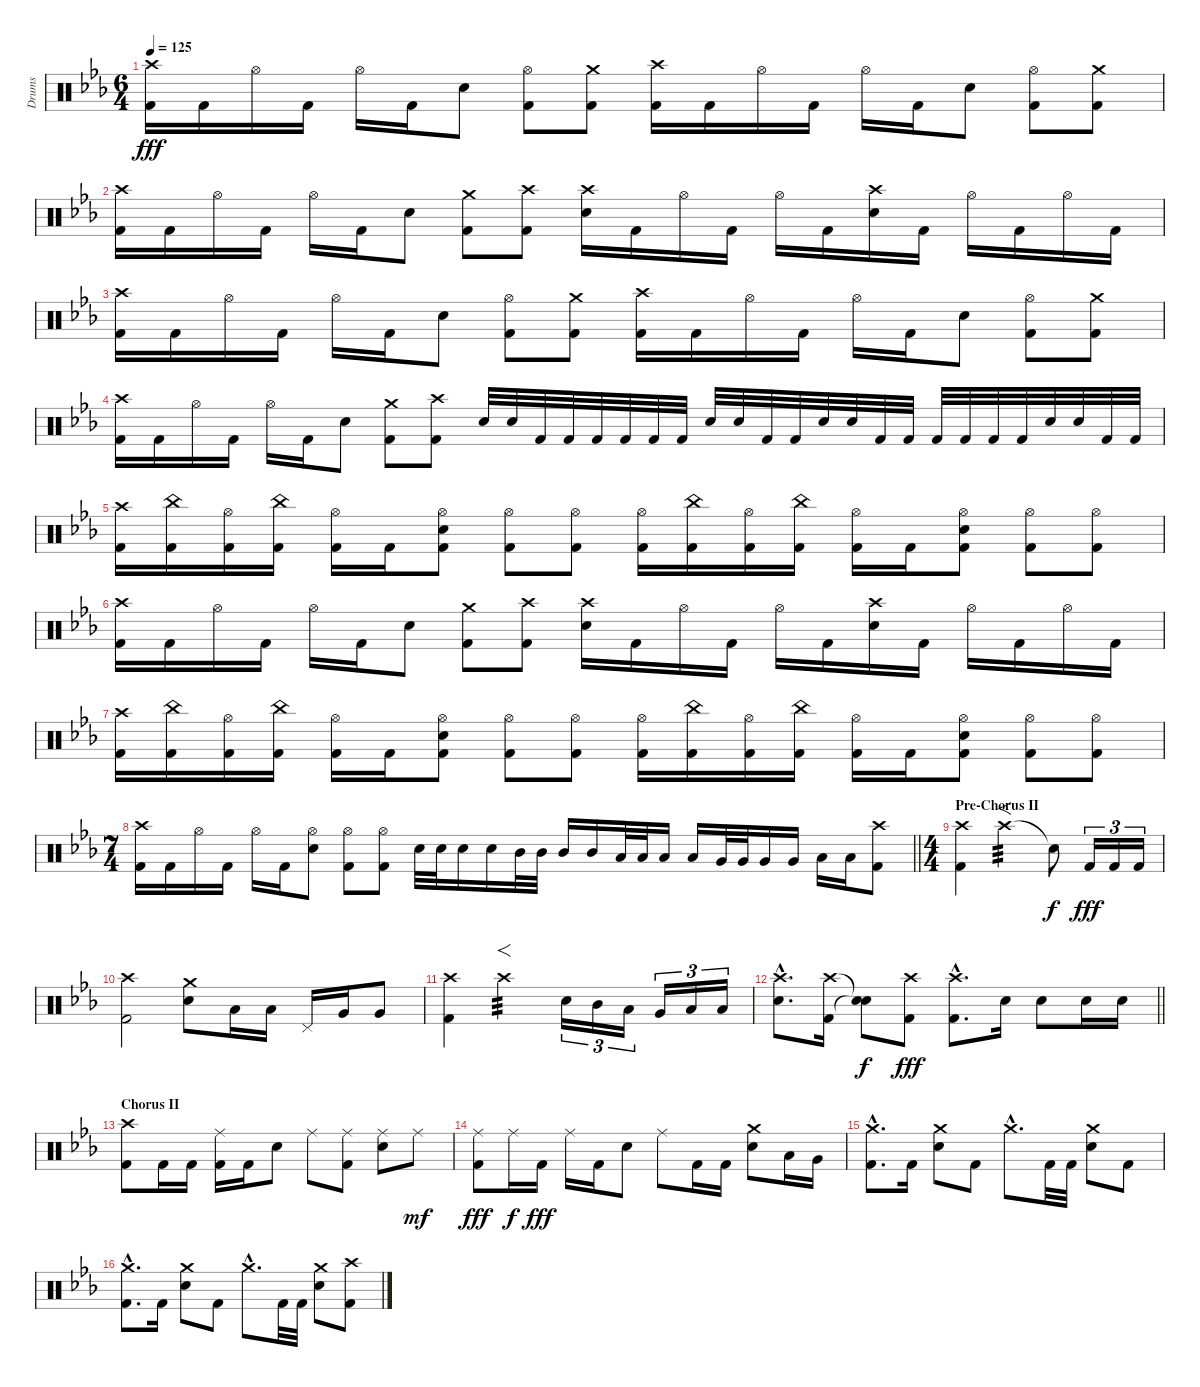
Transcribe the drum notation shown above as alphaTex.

\track ("Drums" "Drums") {instrument percussion}
\staff {score}
\articulation defaults
\ts (6 4)
\tempo 125
\clef neutral
\ks cminor
("Crash high (hit)" "Kick (hit) 2").16{dy fff} "Kick (hit) 2".16 "Hi-Hat (open)".16 "Kick (hit) 2".16 "Hi-Hat (open)".16 "Kick (hit) 2".16 "Snare (hit) 2".8 ("Hi-Hat (open)" "Kick (hit) 2").8 ("Crash medium (hit)" "Kick (hit) 2").8 ("Crash high (hit)" "Kick (hit) 2").16 "Kick (hit) 2".16 "Hi-Hat (open)".16 "Kick (hit) 2".16 "Hi-Hat (open)".16 "Kick (hit) 2".16 "Snare (hit) 2".8 ("Hi-Hat (open)" "Kick (hit) 2").8 ("Crash medium (hit)" "Kick (hit) 2").8 |
("Crash high (hit)" "Kick (hit) 2").16 "Kick (hit) 2".16 "Hi-Hat (open)".16 "Kick (hit) 2".16 "Hi-Hat (open)".16 "Kick (hit) 2".16 "Snare (hit) 2".8 ("Crash medium (hit)" "Kick (hit) 2").8 ("Crash high (hit)" "Kick (hit) 2").8 ("Crash high (hit)" "Snare (hit) 2").16 "Kick (hit) 2".16 "Hi-Hat (open)".16 "Kick (hit) 2".16 "Hi-Hat (open)".16 "Kick (hit) 2".16 ("Crash high (hit)" "Snare (hit) 2").16 "Kick (hit) 2".16 "Hi-Hat (open)".16 "Kick (hit) 2".16 "Hi-Hat (open)".16 "Kick (hit) 2".16 |
("Crash high (hit)" "Kick (hit) 2").16 "Kick (hit) 2".16 "Hi-Hat (open)".16 "Kick (hit) 2".16 "Hi-Hat (open)".16 "Kick (hit) 2".16 "Snare (hit) 2".8 ("Hi-Hat (open)" "Kick (hit) 2").8 ("Crash medium (hit)" "Kick (hit) 2").8 ("Crash high (hit)" "Kick (hit) 2").16 "Kick (hit) 2".16 "Hi-Hat (open)".16 "Kick (hit) 2".16 "Hi-Hat (open)".16 "Kick (hit) 2".16 "Snare (hit) 2".8 ("Hi-Hat (open)" "Kick (hit) 2").8 ("Crash medium (hit)" "Kick (hit) 2").8 |
("Crash high (hit)" "Kick (hit) 2").16 "Kick (hit) 2".16 "Hi-Hat (open)".16 "Kick (hit) 2".16 "Hi-Hat (open)".16 "Kick (hit) 2".16 "Snare (hit) 2".8 ("Crash medium (hit)" "Kick (hit) 2").8 ("Crash high (hit)" "Kick (hit) 2").8 "Snare (hit) 2".32 "Snare (hit) 2".32 "Kick (hit) 2".32 "Kick (hit) 2".32 "Kick (hit) 2".32 "Kick (hit) 2".32 "Kick (hit) 2".32 "Kick (hit) 2".32 "Snare (hit) 2".32 "Snare (hit) 2".32 "Kick (hit) 2".32 "Kick (hit) 2".32 "Snare (hit) 2".32 "Snare (hit) 2".32 "Kick (hit) 2".32 "Kick (hit) 2".32 "Kick (hit) 2".32 "Kick (hit) 2".32 "Kick (hit) 2".32 "Kick (hit) 2".32 "Snare (hit) 2".32 "Snare (hit) 2".32 "Kick (hit) 2".32 "Kick (hit) 2".32 |
("Crash high (hit)" "Kick (hit) 2").16 ("China (hit)" "Kick (hit) 2").16 ("Hi-Hat (open)" "Kick (hit) 2").16 ("China (hit)" "Kick (hit) 2").16 ("Hi-Hat (open)" "Kick (hit) 2").16 "Kick (hit) 2".16 ("Hi-Hat (open)" "Snare (hit) 2" "Kick (hit) 2").8 ("Hi-Hat (open)" "Kick (hit) 2").8 ("Hi-Hat (open)" "Kick (hit) 2").8 ("Hi-Hat (open)" "Kick (hit) 2").16 ("China (hit)" "Kick (hit) 2").16 ("Hi-Hat (open)" "Kick (hit) 2").16 ("China (hit)" "Kick (hit) 2").16 ("Hi-Hat (open)" "Kick (hit) 2").16 "Kick (hit) 2".16 ("Hi-Hat (open)" "Snare (hit) 2" "Kick (hit) 2").8 ("Hi-Hat (open)" "Kick (hit) 2").8 ("Hi-Hat (open)" "Kick (hit) 2").8 |
("Crash high (hit)" "Kick (hit) 2").16 "Kick (hit) 2".16 "Hi-Hat (open)".16 "Kick (hit) 2".16 "Hi-Hat (open)".16 "Kick (hit) 2".16 "Snare (hit) 2".8 ("Crash medium (hit)" "Kick (hit) 2").8 ("Crash high (hit)" "Kick (hit) 2").8 ("Crash high (hit)" "Snare (hit) 2").16 "Kick (hit) 2".16 "Hi-Hat (open)".16 "Kick (hit) 2".16 "Hi-Hat (open)".16 "Kick (hit) 2".16 ("Crash high (hit)" "Snare (hit) 2").16 "Kick (hit) 2".16 "Hi-Hat (open)".16 "Kick (hit) 2".16 "Hi-Hat (open)".16 "Kick (hit) 2".16 |
("Crash high (hit)" "Kick (hit) 2").16 ("China (hit)" "Kick (hit) 2").16 ("Hi-Hat (open)" "Kick (hit) 2").16 ("China (hit)" "Kick (hit) 2").16 ("Hi-Hat (open)" "Kick (hit) 2").16 "Kick (hit) 2".16 ("Hi-Hat (open)" "Snare (hit) 2" "Kick (hit) 2").8 ("Hi-Hat (open)" "Kick (hit) 2").8 ("Hi-Hat (open)" "Kick (hit) 2").8 ("Hi-Hat (open)" "Kick (hit) 2").16 ("China (hit)" "Kick (hit) 2").16 ("Hi-Hat (open)" "Kick (hit) 2").16 ("China (hit)" "Kick (hit) 2").16 ("Hi-Hat (open)" "Kick (hit) 2").16 "Kick (hit) 2".16 ("Hi-Hat (open)" "Snare (hit) 2" "Kick (hit) 2").8 ("Hi-Hat (open)" "Kick (hit) 2").8 ("Hi-Hat (open)" "Kick (hit) 2").8 |
\ts (7 4)
\barLineRight lightlight
("Crash high (hit)" "Kick (hit) 2").16 "Kick (hit) 2".16 "Hi-Hat (open)".16 "Kick (hit) 2".16 "Hi-Hat (open)".16 "Kick (hit) 2".16 ("Hi-Hat (open)" "Snare (hit) 2").8 ("Hi-Hat (open)" "Kick (hit) 2").8 ("Hi-Hat (open)" "Kick (hit) 2").8 "Snare (hit) 2".32 "Snare (hit) 2".32 "Snare (hit) 2".16 "Snare (hit) 2".16 "Mid Tom (hit)".32 "Mid Tom (hit)".32 "Mid Tom (hit)".16 "Mid Tom (hit)".16 "Low Tom (hit)".32 "Low Tom (hit)".32 "Low Tom (hit)".16 "Low Tom (hit)".16 "Very Low Tom (hit)".32 "Very Low Tom (hit)".32 "Very Low Tom (hit)".16 "Very Low Tom (hit)".16 "Low Floor Tom (hit)".16 "Low Floor Tom (hit)".16 ("Crash high (hit)" "Kick (hit) 2").8 |
\ts (4 4)
\section ("" "Pre-Chorus II")
("Crash high (hit)" "Kick (hit) 2").4 "Crash high (hit)".2{f tp 3} "Snare (hit)"{t}.8{dy f} "Kick (hit) 2".16{tu (3 2) dy fff} "Kick (hit) 2".16{tu (3 2)} "Kick (hit) 2".16{tu (3 2)} |
("Crash high (hit)" "Kick (hit) 2").2 ("Crash medium (hit)" "Snare (hit) 2").8 "Low Tom (hit)".16 "Low Tom (hit)".16 "Pedal Hi-Hat (hit)".16 "Very Low Tom (hit)".16 "Very Low Tom (hit)".8 |
("Crash high (hit)" "Kick (hit) 2").4 "Crash high (hit)".2{f tp 3} "Snare (hit) 2".16{tu (3 2)} "Mid Tom (hit)".16{tu (3 2)} "Low Tom (hit)".16{tu (3 2)} "Very Low Tom (hit)".16{tu (3 2)} "Low Floor Tom (hit)".16{tu (3 2)} "Low Floor Tom (hit)".16{tu (3 2)} |
\barLineRight lightlight
("Crash high (hit)"{hac} "Snare (hit) 2"{hac}).8{d} ("Crash high (hit)" "Kick (hit) 2").16 ("Snare (hit)"{t} "Snare (hit)"{t}).8{dy f} ("Crash high (hit)" "Kick (hit) 2").8{dy fff} ("Crash high (hit)"{hac} "Kick (hit) 2"{hac}).8{d} "Snare (hit) 2".16 "Snare (hit) 2".8 "Snare (hit) 2".16 "Snare (hit) 2".16 |
\section ("" "Chorus II")
("Crash high (hit)" "Kick (hit) 2").8 "Kick (hit) 2".16 "Kick (hit) 2".16 ("Ride (middle)" "Kick (hit) 2").16 "Kick (hit) 2".16 "Snare (hit) 2".8 "Ride (middle)".8 ("Ride (middle)" "Kick (hit) 2").8 ("Ride (middle)" "Snare (hit) 2").8 "Ride (middle)".8{dy mf} |
("Ride (middle)" "Kick (hit) 2").8{dy fff} "Ride (middle)".16{dy f} "Kick (hit) 2".16{dy fff} "Ride (middle)".16 "Kick (hit) 2".16 "Snare (hit) 2".8 "Ride (middle)".8 "Kick (hit) 2".16 "Kick (hit) 2".16 ("Crash medium (hit)" "Snare (hit) 2").8 "Low Tom (hit)".16 "Very Low Tom (hit)".16 |
("Crash medium (hit)"{hac} "Kick (hit) 2"{hac}).8{d} "Kick (hit) 2".16 ("Crash medium (hit)" "Snare (hit) 2").8 "Kick (hit) 2".8 "Crash medium (hit)"{hac}.8{d} "Kick (hit) 2".32 "Kick (hit) 2".32 ("Crash medium (hit)" "Snare (hit) 2").8 "Kick (hit) 2".8 |
("Crash medium (hit)"{hac} "Kick (hit) 2"{hac}).8{d} "Kick (hit) 2".16 ("Crash medium (hit)" "Snare (hit) 2").8 "Kick (hit) 2".8 "Crash medium (hit)"{hac}.8{d} "Kick (hit) 2".32 "Kick (hit) 2".32 ("Crash medium (hit)" "Snare (hit) 2").8 ("Crash high (hit)" "Kick (hit) 2").8
